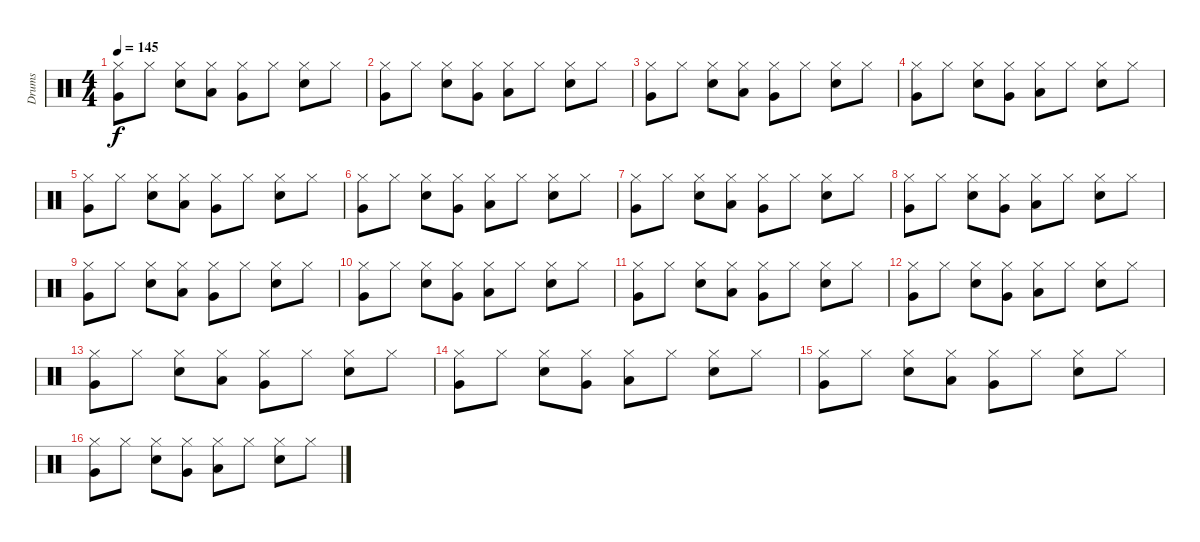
\track ("Drums" "Drums") {instrument percussion}
\staff {score}
\articulation defaults
\ts (4 4)
\tempo 145
\clef neutral
\ks c
("Hi-Hat (closed)" "Very Low Tom (hit)").8{dy f} "Hi-Hat (closed)".8 ("Hi-Hat (closed)" "Snare (hit) 2").8 ("Hi-Hat (closed)" "Low Tom (hit)").8 ("Hi-Hat (closed)" "Very Low Tom (hit)").8 "Hi-Hat (closed)".8 ("Hi-Hat (closed)" "Snare (hit) 2").8 "Hi-Hat (closed)".8 |
("Hi-Hat (closed)" "Very Low Tom (hit)").8 "Hi-Hat (closed)".8 ("Hi-Hat (closed)" "Snare (hit) 2").8 ("Hi-Hat (closed)" "Very Low Tom (hit)").8 ("Hi-Hat (closed)" "Low Tom (hit)").8 "Hi-Hat (closed)".8 ("Hi-Hat (closed)" "Snare (hit) 2").8 "Hi-Hat (closed)".8 |
("Hi-Hat (closed)" "Very Low Tom (hit)").8 "Hi-Hat (closed)".8 ("Hi-Hat (closed)" "Snare (hit) 2").8 ("Hi-Hat (closed)" "Low Tom (hit)").8 ("Hi-Hat (closed)" "Very Low Tom (hit)").8 "Hi-Hat (closed)".8 ("Hi-Hat (closed)" "Snare (hit) 2").8 "Hi-Hat (closed)".8 |
("Hi-Hat (closed)" "Very Low Tom (hit)").8 "Hi-Hat (closed)".8 ("Hi-Hat (closed)" "Snare (hit) 2").8 ("Hi-Hat (closed)" "Very Low Tom (hit)").8 ("Hi-Hat (closed)" "Low Tom (hit)").8 "Hi-Hat (closed)".8 ("Hi-Hat (closed)" "Snare (hit) 2").8 "Hi-Hat (closed)".8 |
("Hi-Hat (closed)" "Very Low Tom (hit)").8 "Hi-Hat (closed)".8 ("Hi-Hat (closed)" "Snare (hit) 2").8 ("Hi-Hat (closed)" "Low Tom (hit)").8 ("Hi-Hat (closed)" "Very Low Tom (hit)").8 "Hi-Hat (closed)".8 ("Hi-Hat (closed)" "Snare (hit) 2").8 "Hi-Hat (closed)".8 |
("Hi-Hat (closed)" "Very Low Tom (hit)").8 "Hi-Hat (closed)".8 ("Hi-Hat (closed)" "Snare (hit) 2").8 ("Hi-Hat (closed)" "Very Low Tom (hit)").8 ("Hi-Hat (closed)" "Low Tom (hit)").8 "Hi-Hat (closed)".8 ("Hi-Hat (closed)" "Snare (hit) 2").8 "Hi-Hat (closed)".8 |
("Hi-Hat (closed)" "Very Low Tom (hit)").8 "Hi-Hat (closed)".8 ("Hi-Hat (closed)" "Snare (hit) 2").8 ("Hi-Hat (closed)" "Low Tom (hit)").8 ("Hi-Hat (closed)" "Very Low Tom (hit)").8 "Hi-Hat (closed)".8 ("Hi-Hat (closed)" "Snare (hit) 2").8 "Hi-Hat (closed)".8 |
("Hi-Hat (closed)" "Very Low Tom (hit)").8 "Hi-Hat (closed)".8 ("Hi-Hat (closed)" "Snare (hit) 2").8 ("Hi-Hat (closed)" "Very Low Tom (hit)").8 ("Hi-Hat (closed)" "Low Tom (hit)").8 "Hi-Hat (closed)".8 ("Hi-Hat (closed)" "Snare (hit) 2").8 "Hi-Hat (closed)".8 |
("Hi-Hat (closed)" "Very Low Tom (hit)").8 "Hi-Hat (closed)".8 ("Hi-Hat (closed)" "Snare (hit) 2").8 ("Hi-Hat (closed)" "Low Tom (hit)").8 ("Hi-Hat (closed)" "Very Low Tom (hit)").8 "Hi-Hat (closed)".8 ("Hi-Hat (closed)" "Snare (hit) 2").8 "Hi-Hat (closed)".8 |
("Hi-Hat (closed)" "Very Low Tom (hit)").8 "Hi-Hat (closed)".8 ("Hi-Hat (closed)" "Snare (hit) 2").8 ("Hi-Hat (closed)" "Very Low Tom (hit)").8 ("Hi-Hat (closed)" "Low Tom (hit)").8 "Hi-Hat (closed)".8 ("Hi-Hat (closed)" "Snare (hit) 2").8 "Hi-Hat (closed)".8 |
("Hi-Hat (closed)" "Very Low Tom (hit)").8 "Hi-Hat (closed)".8 ("Hi-Hat (closed)" "Snare (hit) 2").8 ("Hi-Hat (closed)" "Low Tom (hit)").8 ("Hi-Hat (closed)" "Very Low Tom (hit)").8 "Hi-Hat (closed)".8 ("Hi-Hat (closed)" "Snare (hit) 2").8 "Hi-Hat (closed)".8 |
("Hi-Hat (closed)" "Very Low Tom (hit)").8 "Hi-Hat (closed)".8 ("Hi-Hat (closed)" "Snare (hit) 2").8 ("Hi-Hat (closed)" "Very Low Tom (hit)").8 ("Hi-Hat (closed)" "Low Tom (hit)").8 "Hi-Hat (closed)".8 ("Hi-Hat (closed)" "Snare (hit) 2").8 "Hi-Hat (closed)".8 |
("Hi-Hat (closed)" "Very Low Tom (hit)").8 "Hi-Hat (closed)".8 ("Hi-Hat (closed)" "Snare (hit) 2").8 ("Hi-Hat (closed)" "Low Tom (hit)").8 ("Hi-Hat (closed)" "Very Low Tom (hit)").8 "Hi-Hat (closed)".8 ("Hi-Hat (closed)" "Snare (hit) 2").8 "Hi-Hat (closed)".8 |
("Hi-Hat (closed)" "Very Low Tom (hit)").8 "Hi-Hat (closed)".8 ("Hi-Hat (closed)" "Snare (hit) 2").8 ("Hi-Hat (closed)" "Very Low Tom (hit)").8 ("Hi-Hat (closed)" "Low Tom (hit)").8 "Hi-Hat (closed)".8 ("Hi-Hat (closed)" "Snare (hit) 2").8 "Hi-Hat (closed)".8 |
("Hi-Hat (closed)" "Very Low Tom (hit)").8 "Hi-Hat (closed)".8 ("Hi-Hat (closed)" "Snare (hit) 2").8 ("Hi-Hat (closed)" "Low Tom (hit)").8 ("Hi-Hat (closed)" "Very Low Tom (hit)").8 "Hi-Hat (closed)".8 ("Hi-Hat (closed)" "Snare (hit) 2").8 "Hi-Hat (closed)".8 |
("Hi-Hat (closed)" "Very Low Tom (hit)").8 "Hi-Hat (closed)".8 ("Hi-Hat (closed)" "Snare (hit) 2").8 ("Hi-Hat (closed)" "Very Low Tom (hit)").8 ("Hi-Hat (closed)" "Low Tom (hit)").8 "Hi-Hat (closed)".8 ("Hi-Hat (closed)" "Snare (hit) 2").8 "Hi-Hat (closed)".8
